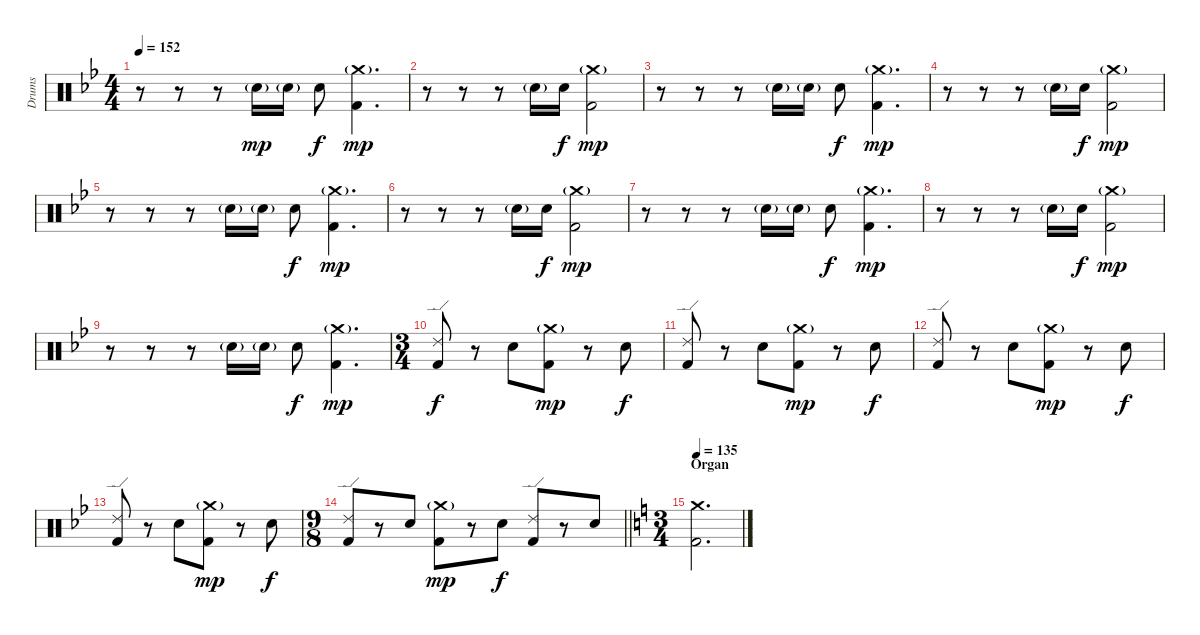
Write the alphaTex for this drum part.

\track ("Drums" "Drums") {instrument percussion}
\staff {score}
\articulation defaults
\ts (4 4)
\tempo 152
\clef neutral
\ks bb
r.8{dy mp} r.8 r.8 "Electric Snare (hit)"{g}.16 "Electric Snare (hit)"{g}.16 "Electric Snare (hit)".8{dy f} ("Crash medium (hit)"{g} "Kick (hit) 2").4{d dy mp} |
r.8 r.8 r.8 "Electric Snare (hit)"{g}.16 "Electric Snare (hit)".16{dy f} ("Crash medium (hit)"{g} "Kick (hit) 2").2{dy mp} |
r.8 r.8 r.8 "Electric Snare (hit)"{g}.16 "Electric Snare (hit)"{g}.16 "Electric Snare (hit)".8{dy f} ("Crash medium (hit)"{g} "Kick (hit) 2").4{d dy mp} |
r.8 r.8 r.8 "Electric Snare (hit)"{g}.16 "Electric Snare (hit)".16{dy f} ("Crash medium (hit)"{g} "Kick (hit) 2").2{dy mp} |
r.8 r.8 r.8 "Electric Snare (hit)"{g}.16 "Electric Snare (hit)"{g}.16 "Electric Snare (hit)".8{dy f} ("Crash medium (hit)"{g} "Kick (hit) 2").4{d dy mp} |
r.8 r.8 r.8 "Electric Snare (hit)"{g}.16 "Electric Snare (hit)".16{dy f} ("Crash medium (hit)"{g} "Kick (hit) 2").2{dy mp} |
r.8 r.8 r.8 "Electric Snare (hit)"{g}.16 "Electric Snare (hit)"{g}.16 "Electric Snare (hit)".8{dy f} ("Crash medium (hit)"{g} "Kick (hit) 2").4{d dy mp} |
r.8 r.8 r.8 "Electric Snare (hit)"{g}.16 "Electric Snare (hit)".16{dy f} ("Crash medium (hit)"{g} "Kick (hit) 2").2{dy mp} |
r.8 r.8 r.8 "Electric Snare (hit)"{g}.16 "Electric Snare (hit)"{g}.16 "Electric Snare (hit)".8{dy f} ("Crash medium (hit)"{g} "Kick (hit) 2").4{d dy mp} |
\ts (3 4)
("Ride (edge) 2" "Kick (hit) 2").8{dy f} r.8 "Electric Snare (hit)".8 ("Crash medium (hit)"{g} "Kick (hit) 2").8{dy mp} r.8 "Electric Snare (hit)".8{dy f} |
("Ride (edge) 2" "Kick (hit) 2").8 r.8 "Electric Snare (hit)".8 ("Crash medium (hit)"{g} "Kick (hit) 2").8{dy mp} r.8 "Electric Snare (hit)".8{dy f} |
("Ride (edge) 2" "Kick (hit) 2").8 r.8 "Electric Snare (hit)".8 ("Crash medium (hit)"{g} "Kick (hit) 2").8{dy mp} r.8 "Electric Snare (hit)".8{dy f} |
("Ride (edge) 2" "Kick (hit) 2").8 r.8 "Electric Snare (hit)".8 ("Crash medium (hit)"{g} "Kick (hit) 2").8{dy mp} r.8 "Electric Snare (hit)".8{dy f} |
\ts (9 8)
\barLineRight lightlight
("Ride (edge) 2" "Kick (hit) 2").8 r.8 "Electric Snare (hit)".8 ("Crash medium (hit)"{g} "Kick (hit) 2").8{dy mp} r.8 "Electric Snare (hit)".8{dy f} ("Ride (edge) 2" "Kick (hit) 2").8 r.8 "Electric Snare (hit)".8 |
\ts (3 4)
\section ("" "Organ")
\tempo 135
\ks c
("Crash medium (hit)" "Kick (hit) 2").2{d}
